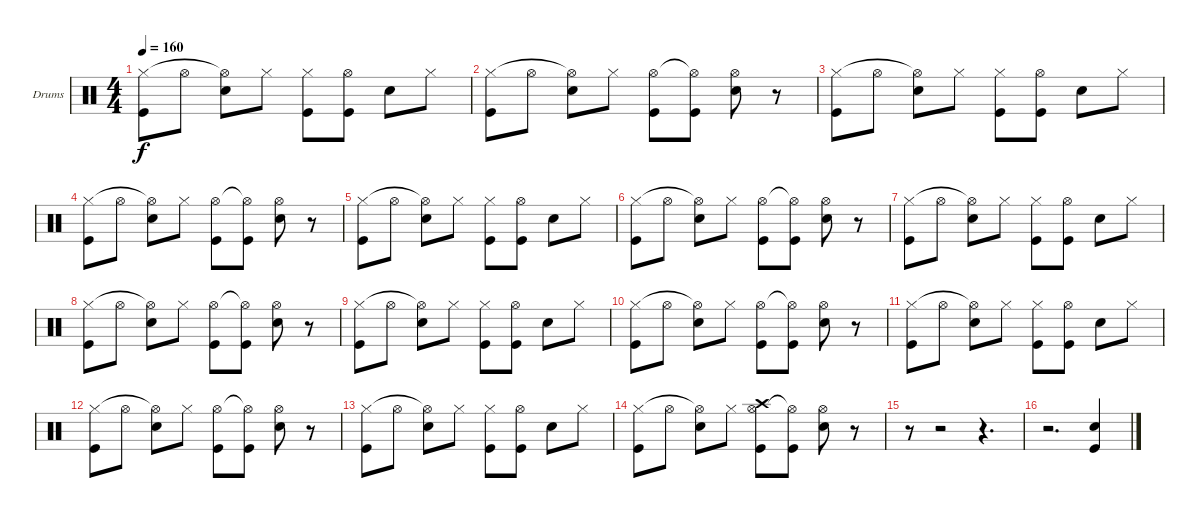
\bracketExtendMode groupsimilarinstruments
\firstSystemTrackNameOrientation horizontal
\otherSystemsTrackNameOrientation horizontal
\track ("Drumkit" "Drums") {instrument percussion}
\staff {score}
\articulation defaults
\ts (4 4)
\tempo 160
\clef neutral
\ks c
("Kick (hit)" "Hi-Hat (closed)").8{dy f} "Hi-Hat (open)".8 ("Snare (hit) 2" "Hi-Hat (open)"{t}).8 "Hi-Hat (closed)".8 ("Kick (hit)" "Hi-Hat (closed)").8 ("Kick (hit)" "Hi-Hat (open)").8 "Snare (hit) 2".8 "Hi-Hat (closed)".8 |
("Kick (hit)" "Hi-Hat (closed)").8 "Hi-Hat (open)".8 ("Snare (hit) 2" "Hi-Hat (open)"{t}).8 "Hi-Hat (closed)".8 ("Kick (hit)" "Hi-Hat (open)").8 ("Kick (hit)" "Hi-Hat (open)"{t}).8 ("Snare (hit) 2" "Hi-Hat (open)").8 r.8 |
("Kick (hit)" "Hi-Hat (closed)").8 "Hi-Hat (open)".8 ("Snare (hit) 2" "Hi-Hat (open)"{t}).8 "Hi-Hat (closed)".8 ("Kick (hit)" "Hi-Hat (closed)").8 ("Kick (hit)" "Hi-Hat (open)").8 "Snare (hit) 2".8 "Hi-Hat (closed)".8 |
("Kick (hit)" "Hi-Hat (closed)").8 "Hi-Hat (open)".8 ("Snare (hit) 2" "Hi-Hat (open)"{t}).8 "Hi-Hat (closed)".8 ("Kick (hit)" "Hi-Hat (open)").8 ("Kick (hit)" "Hi-Hat (open)"{t}).8 ("Snare (hit) 2" "Hi-Hat (open)").8 r.8 |
("Kick (hit)" "Hi-Hat (closed)").8 "Hi-Hat (open)".8 ("Snare (hit) 2" "Hi-Hat (open)"{t}).8 "Hi-Hat (closed)".8 ("Kick (hit)" "Hi-Hat (closed)").8 ("Kick (hit)" "Hi-Hat (open)").8 "Snare (hit) 2".8 "Hi-Hat (closed)".8 |
("Kick (hit)" "Hi-Hat (closed)").8 "Hi-Hat (open)".8 ("Snare (hit) 2" "Hi-Hat (open)"{t}).8 "Hi-Hat (closed)".8 ("Kick (hit)" "Hi-Hat (open)").8 ("Kick (hit)" "Hi-Hat (open)"{t}).8 ("Snare (hit) 2" "Hi-Hat (open)").8 r.8 |
("Kick (hit)" "Hi-Hat (closed)").8 "Hi-Hat (open)".8 ("Snare (hit) 2" "Hi-Hat (open)"{t}).8 "Hi-Hat (closed)".8 ("Kick (hit)" "Hi-Hat (closed)").8 ("Kick (hit)" "Hi-Hat (open)").8 "Snare (hit) 2".8 "Hi-Hat (closed)".8 |
("Kick (hit)" "Hi-Hat (closed)").8 "Hi-Hat (open)".8 ("Snare (hit) 2" "Hi-Hat (open)"{t}).8 "Hi-Hat (closed)".8 ("Kick (hit)" "Hi-Hat (open)").8 ("Kick (hit)" "Hi-Hat (open)"{t}).8 ("Snare (hit) 2" "Hi-Hat (open)").8 r.8 |
("Kick (hit)" "Hi-Hat (closed)").8 "Hi-Hat (open)".8 ("Snare (hit) 2" "Hi-Hat (open)"{t}).8 "Hi-Hat (closed)".8 ("Kick (hit)" "Hi-Hat (closed)").8 ("Kick (hit)" "Hi-Hat (open)").8 "Snare (hit) 2".8 "Hi-Hat (closed)".8 |
("Kick (hit)" "Hi-Hat (closed)").8 "Hi-Hat (open)".8 ("Snare (hit) 2" "Hi-Hat (open)"{t}).8 "Hi-Hat (closed)".8 ("Kick (hit)" "Hi-Hat (open)").8 ("Kick (hit)" "Hi-Hat (open)"{t}).8 ("Snare (hit) 2" "Hi-Hat (open)").8 r.8 |
("Kick (hit)" "Hi-Hat (closed)").8 "Hi-Hat (open)".8 ("Snare (hit) 2" "Hi-Hat (open)"{t}).8 "Hi-Hat (closed)".8 ("Kick (hit)" "Hi-Hat (closed)").8 ("Kick (hit)" "Hi-Hat (open)").8 "Snare (hit) 2".8 "Hi-Hat (closed)".8 |
("Kick (hit)" "Hi-Hat (closed)").8 "Hi-Hat (open)".8 ("Snare (hit) 2" "Hi-Hat (open)"{t}).8 "Hi-Hat (closed)".8 ("Kick (hit)" "Hi-Hat (open)").8 ("Kick (hit)" "Hi-Hat (open)"{t}).8 ("Snare (hit) 2" "Hi-Hat (open)").8 r.8 |
("Kick (hit)" "Hi-Hat (closed)").8 "Hi-Hat (open)".8 ("Snare (hit) 2" "Hi-Hat (open)"{t}).8 "Hi-Hat (closed)".8 ("Kick (hit)" "Hi-Hat (closed)").8 ("Kick (hit)" "Hi-Hat (open)").8 "Snare (hit) 2".8 "Hi-Hat (closed)".8 |
("Kick (hit)" "Hi-Hat (closed)").8 "Hi-Hat (open)".8 ("Snare (hit) 2" "Hi-Hat (open)"{t}).8 "Hi-Hat (closed)".8 ("Kick (hit)" "Hi-Hat (open)" "Crash high (hit)").8 ("Kick (hit)" "Hi-Hat (open)"{t}).8 ("Snare (hit) 2" "Hi-Hat (open)").8 r.8 |
r.8 r.2 r.4{d} |
r.2{d} ("Snare (hit) 2" "Kick (hit)").4
